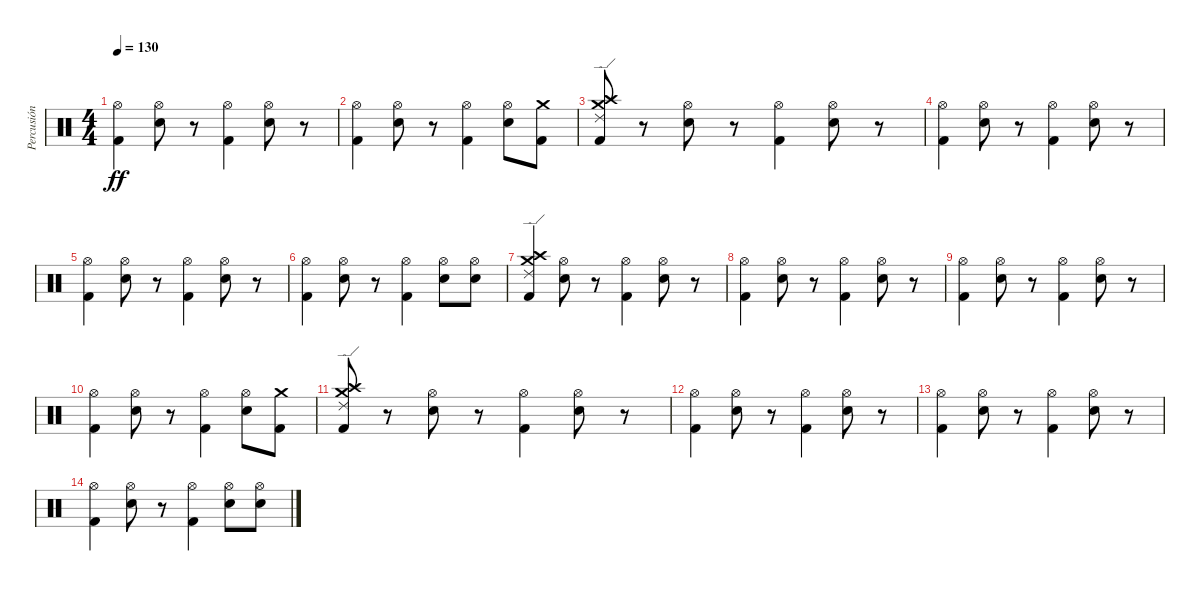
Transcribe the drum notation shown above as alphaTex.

\track ("Percusión" "Percusión") {instrument percussion}
\staff {score}
\articulation defaults
\ts (4 4)
\tempo 130
\clef neutral
\ks c
("Kick (hit) 2" "Hi-Hat (open)").4{dy ff} ("Snare (hit) 2" "Hi-Hat (open)").8 r.8 ("Kick (hit) 2" "Hi-Hat (open)").4 ("Snare (hit) 2" "Hi-Hat (open)").8 r.8 |
("Kick (hit) 2" "Hi-Hat (open)").4 ("Snare (hit) 2" "Hi-Hat (open)").8 r.8 ("Kick (hit) 2" "Hi-Hat (open)").4 ("Snare (hit) 2" "Hi-Hat (open)").8 ("Kick (hit) 2" "Crash medium (hit)").8 |
("Kick (hit) 2" "Crash high (hit)" "Crash medium (hit)" "Ride (edge) 2").8 r.8 ("Snare (hit) 2" "Hi-Hat (open)").8 r.8 ("Kick (hit) 2" "Hi-Hat (open)").4 ("Snare (hit) 2" "Hi-Hat (open)").8 r.8 |
("Kick (hit) 2" "Hi-Hat (open)").4 ("Snare (hit) 2" "Hi-Hat (open)").8 r.8 ("Kick (hit) 2" "Hi-Hat (open)").4 ("Snare (hit) 2" "Hi-Hat (open)").8 r.8 |
("Kick (hit) 2" "Hi-Hat (open)").4 ("Snare (hit) 2" "Hi-Hat (open)").8 r.8 ("Kick (hit) 2" "Hi-Hat (open)").4 ("Snare (hit) 2" "Hi-Hat (open)").8 r.8 |
("Kick (hit) 2" "Hi-Hat (open)").4 ("Snare (hit) 2" "Hi-Hat (open)").8 r.8 ("Kick (hit) 2" "Hi-Hat (open)").4 ("Snare (hit) 2" "Hi-Hat (open)").8 ("Snare (hit) 2" "Hi-Hat (open)").8 |
("Kick (hit) 2" "Crash high (hit)" "Crash medium (hit)" "Ride (edge) 2").4 ("Snare (hit) 2" "Hi-Hat (open)").8 r.8 ("Kick (hit) 2" "Hi-Hat (open)").4 ("Snare (hit) 2" "Hi-Hat (open)").8 r.8 |
("Kick (hit) 2" "Hi-Hat (open)").4 ("Snare (hit) 2" "Hi-Hat (open)").8 r.8 ("Kick (hit) 2" "Hi-Hat (open)").4 ("Snare (hit) 2" "Hi-Hat (open)").8 r.8 |
("Kick (hit) 2" "Hi-Hat (open)").4 ("Snare (hit) 2" "Hi-Hat (open)").8 r.8 ("Kick (hit) 2" "Hi-Hat (open)").4 ("Snare (hit) 2" "Hi-Hat (open)").8 r.8 |
("Kick (hit) 2" "Hi-Hat (open)").4 ("Snare (hit) 2" "Hi-Hat (open)").8 r.8 ("Kick (hit) 2" "Hi-Hat (open)").4 ("Snare (hit) 2" "Hi-Hat (open)").8 ("Kick (hit) 2" "Crash medium (hit)").8 |
("Kick (hit) 2" "Crash high (hit)" "Crash medium (hit)" "Ride (edge) 2").8 r.8 ("Snare (hit) 2" "Hi-Hat (open)").8 r.8 ("Kick (hit) 2" "Hi-Hat (open)").4 ("Snare (hit) 2" "Hi-Hat (open)").8 r.8 |
("Kick (hit) 2" "Hi-Hat (open)").4 ("Snare (hit) 2" "Hi-Hat (open)").8 r.8 ("Kick (hit) 2" "Hi-Hat (open)").4 ("Snare (hit) 2" "Hi-Hat (open)").8 r.8 |
("Kick (hit) 2" "Hi-Hat (open)").4 ("Snare (hit) 2" "Hi-Hat (open)").8 r.8 ("Kick (hit) 2" "Hi-Hat (open)").4 ("Snare (hit) 2" "Hi-Hat (open)").8 r.8 |
("Kick (hit) 2" "Hi-Hat (open)").4 ("Snare (hit) 2" "Hi-Hat (open)").8 r.8 ("Kick (hit) 2" "Hi-Hat (open)").4 ("Snare (hit) 2" "Hi-Hat (open)").8 ("Snare (hit) 2" "Hi-Hat (open)").8
